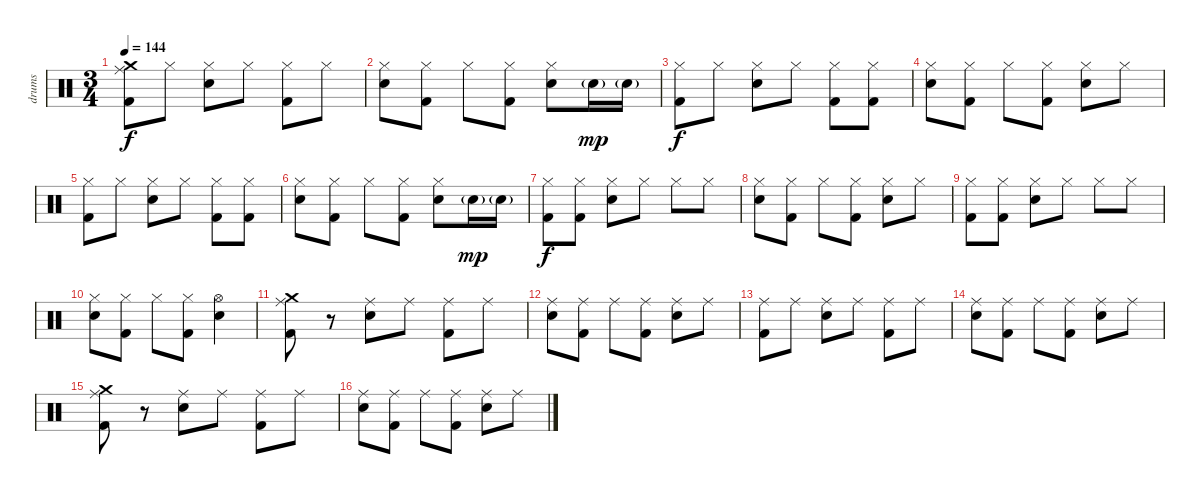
\track ("drums" "drums") {instrument percussion}
\staff {score}
\articulation defaults
\ts (3 4)
\tempo 144
\clef neutral
\ks c
("Crash medium (hit)" "Ride (middle)" "Kick (hit) 2").8{dy f} "Hi-Hat (closed)".8 ("Hi-Hat (closed)" "Snare (hit) 2").8 "Hi-Hat (closed)".8 ("Hi-Hat (closed)" "Kick (hit) 2").8 "Hi-Hat (closed)".8 |
("Hi-Hat (closed)" "Snare (hit) 2").8 ("Hi-Hat (closed)" "Kick (hit) 2").8 "Hi-Hat (closed)".8 ("Hi-Hat (closed)" "Kick (hit) 2").8 ("Hi-Hat (closed)" "Snare (hit) 2").8 "Snare (hit) 2"{g}.16{dy mp} "Snare (hit) 2"{g}.16 |
("Hi-Hat (closed)" "Kick (hit) 2").8{dy f} "Hi-Hat (closed)".8 ("Hi-Hat (closed)" "Snare (hit) 2").8 "Hi-Hat (closed)".8 ("Hi-Hat (closed)" "Kick (hit) 2").8 ("Hi-Hat (closed)" "Kick (hit) 2").8 |
("Hi-Hat (closed)" "Snare (hit) 2").8 ("Hi-Hat (closed)" "Kick (hit) 2").8 "Hi-Hat (closed)".8 ("Hi-Hat (closed)" "Kick (hit) 2").8 ("Hi-Hat (closed)" "Snare (hit) 2").8 "Hi-Hat (closed)".8 |
("Hi-Hat (closed)" "Kick (hit) 2").8 "Hi-Hat (closed)".8 ("Hi-Hat (closed)" "Snare (hit) 2").8 "Hi-Hat (closed)".8 ("Hi-Hat (closed)" "Kick (hit) 2").8 ("Hi-Hat (closed)" "Kick (hit) 2").8 |
("Hi-Hat (closed)" "Snare (hit) 2").8 ("Hi-Hat (closed)" "Kick (hit) 2").8 "Hi-Hat (closed)".8 ("Hi-Hat (closed)" "Kick (hit) 2").8 ("Hi-Hat (closed)" "Snare (hit) 2").8 "Snare (hit) 2"{g}.16{dy mp} "Snare (hit) 2"{g}.16 |
("Hi-Hat (closed)" "Kick (hit) 2").8{dy f} ("Hi-Hat (closed)" "Kick (hit) 2").8 ("Hi-Hat (closed)" "Snare (hit) 2").8 "Hi-Hat (closed)".8 "Hi-Hat (closed)".8 "Hi-Hat (closed)".8 |
("Hi-Hat (closed)" "Snare (hit) 2").8 ("Hi-Hat (closed)" "Kick (hit) 2").8 "Hi-Hat (closed)".8 ("Hi-Hat (closed)" "Kick (hit) 2").8 ("Hi-Hat (closed)" "Snare (hit) 2").8 "Hi-Hat (closed)".8 |
("Hi-Hat (closed)" "Kick (hit) 2").8 ("Hi-Hat (closed)" "Kick (hit) 2").8 ("Hi-Hat (closed)" "Snare (hit) 2").8 "Hi-Hat (closed)".8 "Hi-Hat (closed)".8 "Hi-Hat (closed)".8 |
("Hi-Hat (closed)" "Snare (hit) 2").8 ("Hi-Hat (closed)" "Kick (hit) 2").8 "Hi-Hat (closed)".8 ("Hi-Hat (closed)" "Kick (hit) 2").8 ("Hi-Hat (open)" "Snare (hit) 2").4 |
("Crash medium (hit)" "Ride (middle)" "Kick (hit) 2").8 r.8 ("Ride (middle)" "Snare (hit) 2").8 "Ride (middle)".8 ("Ride (middle)" "Kick (hit) 2").8 "Ride (middle)".8 |
("Ride (middle)" "Snare (hit) 2").8 ("Ride (middle)" "Kick (hit) 2").8 "Ride (middle)".8 ("Ride (middle)" "Kick (hit) 2").8 ("Ride (middle)" "Snare (hit) 2").8 "Ride (middle)".8 |
("Ride (middle)" "Kick (hit) 2").8 "Ride (middle)".8 ("Ride (middle)" "Snare (hit) 2").8 "Ride (middle)".8 ("Ride (middle)" "Kick (hit) 2").8 "Ride (middle)".8 |
("Ride (middle)" "Snare (hit) 2").8 ("Ride (middle)" "Kick (hit) 2").8 "Ride (middle)".8 ("Ride (middle)" "Kick (hit) 2").8 ("Ride (middle)" "Snare (hit) 2").8 "Ride (middle)".8 |
("Crash medium (hit)" "Ride (middle)" "Kick (hit) 2").8 r.8 ("Ride (middle)" "Snare (hit) 2").8 "Ride (middle)".8 ("Ride (middle)" "Kick (hit) 2").8 "Ride (middle)".8 |
("Ride (middle)" "Snare (hit) 2").8 ("Ride (middle)" "Kick (hit) 2").8 "Ride (middle)".8 ("Ride (middle)" "Kick (hit) 2").8 ("Ride (middle)" "Snare (hit) 2").8 "Ride (middle)".8
